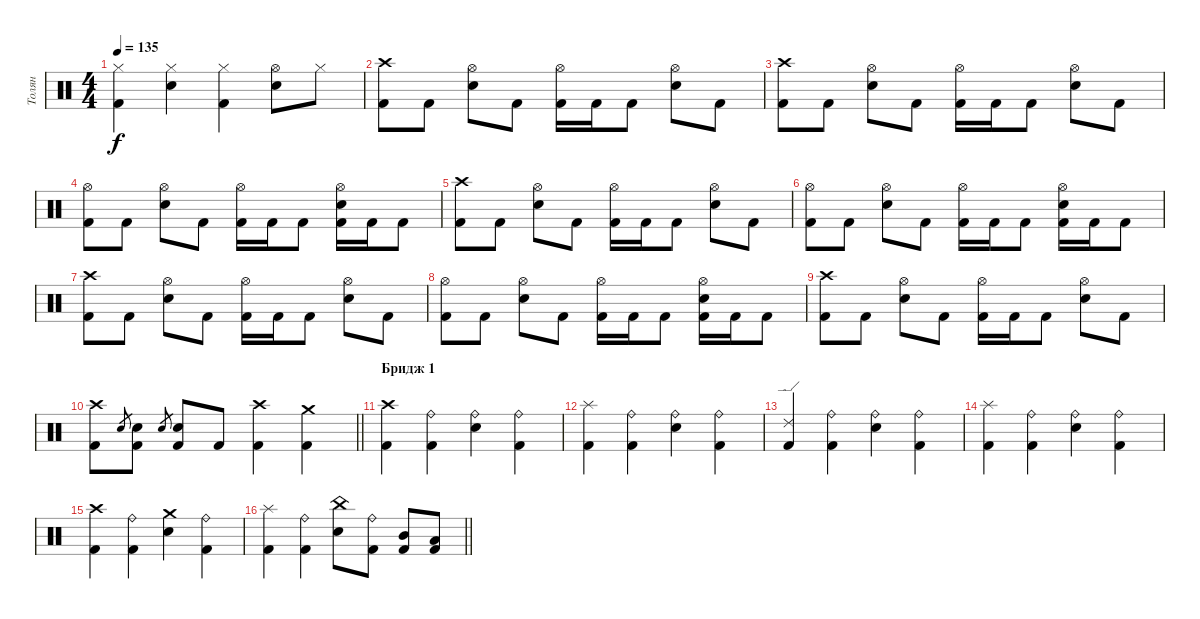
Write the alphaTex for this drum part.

\track ("Толян" "Толян") {instrument percussion}
\staff {score}
\articulation defaults
\ts (4 4)
\tempo 135
\clef neutral
\ks c
("Hi-Hat (closed)" "Kick (hit) 2").4{dy f} ("Hi-Hat (closed)" "Electric Snare (hit)").4 ("Hi-Hat (closed)" "Kick (hit) 2").4 ("Hi-Hat (open)" "Electric Snare (hit)").8 "Hi-Hat (closed)".8 |
("Crash high (hit)" "Kick (hit) 2").8 "Kick (hit) 2".8 ("Hi-Hat (open)" "Electric Snare (hit)").8 "Kick (hit) 2".8 ("Hi-Hat (open)" "Kick (hit) 2").16 "Kick (hit) 2".16 "Kick (hit) 2".8 ("Hi-Hat (open)" "Electric Snare (hit)").8 "Kick (hit) 2".8 |
("Crash high (hit)" "Kick (hit) 2").8 "Kick (hit) 2".8 ("Hi-Hat (open)" "Electric Snare (hit)").8 "Kick (hit) 2".8 ("Hi-Hat (open)" "Kick (hit) 2").16 "Kick (hit) 2".16 "Kick (hit) 2".8 ("Hi-Hat (open)" "Electric Snare (hit)").8 "Kick (hit) 2".8 |
("Hi-Hat (open)" "Kick (hit) 2").8 "Kick (hit) 2".8 ("Hi-Hat (open)" "Electric Snare (hit)").8 "Kick (hit) 2".8 ("Hi-Hat (open)" "Kick (hit) 2").16 "Kick (hit) 2".16 "Kick (hit) 2".8 ("Hi-Hat (open)" "Electric Snare (hit)" "Kick (hit) 2").16 "Kick (hit) 2".16 "Kick (hit) 2".8 |
("Crash high (hit)" "Kick (hit) 2").8 "Kick (hit) 2".8 ("Hi-Hat (open)" "Electric Snare (hit)").8 "Kick (hit) 2".8 ("Hi-Hat (open)" "Kick (hit) 2").16 "Kick (hit) 2".16 "Kick (hit) 2".8 ("Hi-Hat (open)" "Electric Snare (hit)").8 "Kick (hit) 2".8 |
("Hi-Hat (open)" "Kick (hit) 2").8 "Kick (hit) 2".8 ("Hi-Hat (open)" "Electric Snare (hit)").8 "Kick (hit) 2".8 ("Hi-Hat (open)" "Kick (hit) 2").16 "Kick (hit) 2".16 "Kick (hit) 2".8 ("Hi-Hat (open)" "Electric Snare (hit)" "Kick (hit) 2").16 "Kick (hit) 2".16 "Kick (hit) 2".8 |
("Crash high (hit)" "Kick (hit) 2").8 "Kick (hit) 2".8 ("Hi-Hat (open)" "Electric Snare (hit)").8 "Kick (hit) 2".8 ("Hi-Hat (open)" "Kick (hit) 2").16 "Kick (hit) 2".16 "Kick (hit) 2".8 ("Hi-Hat (open)" "Electric Snare (hit)").8 "Kick (hit) 2".8 |
("Hi-Hat (open)" "Kick (hit) 2").8 "Kick (hit) 2".8 ("Hi-Hat (open)" "Electric Snare (hit)").8 "Kick (hit) 2".8 ("Hi-Hat (open)" "Kick (hit) 2").16 "Kick (hit) 2".16 "Kick (hit) 2".8 ("Hi-Hat (open)" "Electric Snare (hit)" "Kick (hit) 2").16 "Kick (hit) 2".16 "Kick (hit) 2".8 |
("Crash high (hit)" "Kick (hit) 2").8 "Kick (hit) 2".8 ("Hi-Hat (open)" "Electric Snare (hit)").8 "Kick (hit) 2".8 ("Hi-Hat (open)" "Kick (hit) 2").16 "Kick (hit) 2".16 "Kick (hit) 2".8 ("Hi-Hat (open)" "Electric Snare (hit)").8 "Kick (hit) 2".8 |
\barLineRight lightlight
("Crash high (hit)" "Kick (hit) 2").8 "Electric Snare (hit)".8{gr} ("Electric Snare (hit)" "Kick (hit) 2").8 "Electric Snare (hit)".8{gr} ("Electric Snare (hit)" "Kick (hit) 2").8 "Kick (hit) 2".8 ("Crash high (hit)" "Kick (hit) 2").4 ("Crash medium (hit)" "Kick (hit) 2").4 |
\section ("" "Бридж 1")
("Crash high (hit)" "Kick (hit) 2").4 ("Ride (bell)" "Kick (hit) 2").4 ("Ride (bell)" "Electric Snare (hit)").4 ("Ride (bell)" "Kick (hit) 2").4 |
("Splash (hit)" "Kick (hit) 2").4 ("Ride (bell)" "Kick (hit) 2").4 ("Ride (bell)" "Electric Snare (hit)").4 ("Ride (bell)" "Kick (hit) 2").4 |
("Ride (edge) 2" "Kick (hit) 2").4 ("Ride (bell)" "Kick (hit) 2").4 ("Ride (bell)" "Electric Snare (hit)").4 ("Ride (bell)" "Kick (hit) 2").4 |
("Splash (hit)" "Kick (hit) 2").4 ("Ride (bell)" "Kick (hit) 2").4 ("Ride (bell)" "Electric Snare (hit)").4 ("Ride (bell)" "Kick (hit) 2").4 |
("Crash high (hit)" "Kick (hit) 2").4 ("Ride (bell)" "Kick (hit) 2").4 ("Crash medium (hit)" "Electric Snare (hit)").4 ("Ride (bell)" "Kick (hit) 2").4 |
\barLineRight lightlight
("Splash (hit)" "Kick (hit) 2").4 ("Ride (bell)" "Kick (hit) 2").4 ("China (hit)" "Electric Snare (hit)").8 ("Ride (bell)" "Kick (hit) 2").8 ("Mid Tom (hit)" "Kick (hit) 2").8 ("Low Tom (hit)" "Kick (hit) 2").8
